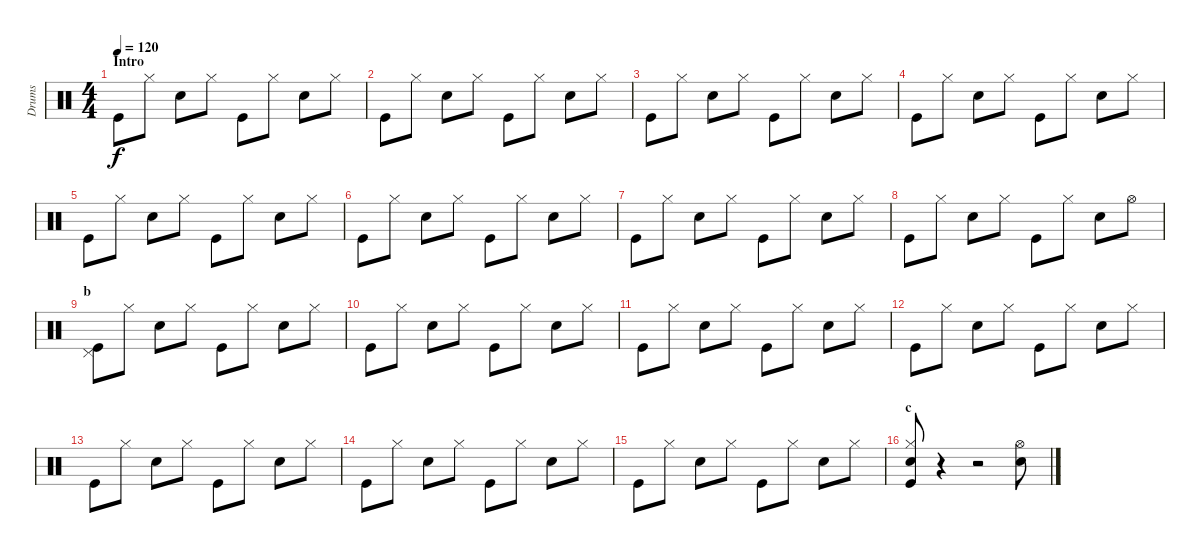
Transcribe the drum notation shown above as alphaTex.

\track ("Drums" "Drums") {instrument percussion}
\staff {score}
\articulation defaults
\ts (4 4)
\section ("" "Intro")
\tempo 120
\clef neutral
\ks c "Kick (hit)".8{dy f} "Hi-Hat (closed)".8 "Snare (hit) 2".8 "Hi-Hat (closed)".8 "Kick (hit)".8 "Hi-Hat (closed)".8 "Snare (hit) 2".8 "Hi-Hat (closed)".8
|
"Kick (hit)".8 "Hi-Hat (closed)".8 "Snare (hit) 2".8 "Hi-Hat (closed)".8 "Kick (hit)".8 "Hi-Hat (closed)".8 "Snare (hit) 2".8 "Hi-Hat (closed)".8 |
"Kick (hit)".8 "Hi-Hat (closed)".8 "Snare (hit) 2".8 "Hi-Hat (closed)".8 "Kick (hit)".8 "Hi-Hat (closed)".8 "Snare (hit) 2".8 "Hi-Hat (closed)".8 |
"Kick (hit)".8 "Hi-Hat (closed)".8 "Snare (hit) 2".8 "Hi-Hat (closed)".8 "Kick (hit)".8 "Hi-Hat (closed)".8 "Snare (hit) 2".8 "Hi-Hat (closed)".8 |
"Kick (hit)".8 "Hi-Hat (closed)".8 "Snare (hit) 2".8 "Hi-Hat (closed)".8 "Kick (hit)".8 "Hi-Hat (closed)".8 "Snare (hit) 2".8 "Hi-Hat (closed)".8 |
"Kick (hit)".8 "Hi-Hat (closed)".8 "Snare (hit) 2".8 "Hi-Hat (closed)".8 "Kick (hit)".8 "Hi-Hat (closed)".8 "Snare (hit) 2".8 "Hi-Hat (closed)".8 |
"Kick (hit)".8 "Hi-Hat (closed)".8 "Snare (hit) 2".8 "Hi-Hat (closed)".8 "Kick (hit)".8 "Hi-Hat (closed)".8 "Snare (hit) 2".8 "Hi-Hat (closed)".8 |
"Kick (hit)".8 "Hi-Hat (closed)".8 "Snare (hit) 2".8 "Hi-Hat (closed)".8 "Kick (hit)".8 "Hi-Hat (closed)".8 "Snare (hit) 2".8 "Hi-Hat (open)".8 |
\section ("" "b")
("Pedal Hi-Hat (hit)" "Kick (hit)").8 "Hi-Hat (closed)".8 "Snare (hit) 2".8 "Hi-Hat (closed)".8 "Kick (hit)".8 "Hi-Hat (closed)".8 "Snare (hit) 2".8 "Hi-Hat (closed)".8 |
"Kick (hit)".8 "Hi-Hat (closed)".8 "Snare (hit) 2".8 "Hi-Hat (closed)".8 "Kick (hit)".8 "Hi-Hat (closed)".8 "Snare (hit) 2".8 "Hi-Hat (closed)".8 |
"Kick (hit)".8 "Hi-Hat (closed)".8 "Snare (hit) 2".8 "Hi-Hat (closed)".8 "Kick (hit)".8 "Hi-Hat (closed)".8 "Snare (hit) 2".8 "Hi-Hat (closed)".8 |
"Kick (hit)".8 "Hi-Hat (closed)".8 "Snare (hit) 2".8 "Hi-Hat (closed)".8 "Kick (hit)".8 "Hi-Hat (closed)".8 "Snare (hit) 2".8 "Hi-Hat (closed)".8 |
"Kick (hit)".8 "Hi-Hat (closed)".8 "Snare (hit) 2".8 "Hi-Hat (closed)".8 "Kick (hit)".8 "Hi-Hat (closed)".8 "Snare (hit) 2".8 "Hi-Hat (closed)".8 |
"Kick (hit)".8 "Hi-Hat (closed)".8 "Snare (hit) 2".8 "Hi-Hat (closed)".8 "Kick (hit)".8 "Hi-Hat (closed)".8 "Snare (hit) 2".8 "Hi-Hat (closed)".8 |
"Kick (hit)".8 "Hi-Hat (closed)".8 "Snare (hit) 2".8 "Hi-Hat (closed)".8 "Kick (hit)".8 "Hi-Hat (closed)".8 "Snare (hit) 2".8 "Hi-Hat (closed)".8 |
\section ("" "c")
("Hi-Hat (closed)" "Snare (hit) 2" "Kick (hit)").8 r.4 r.2 ("Hi-Hat (open)" "Snare (hit) 2").8
